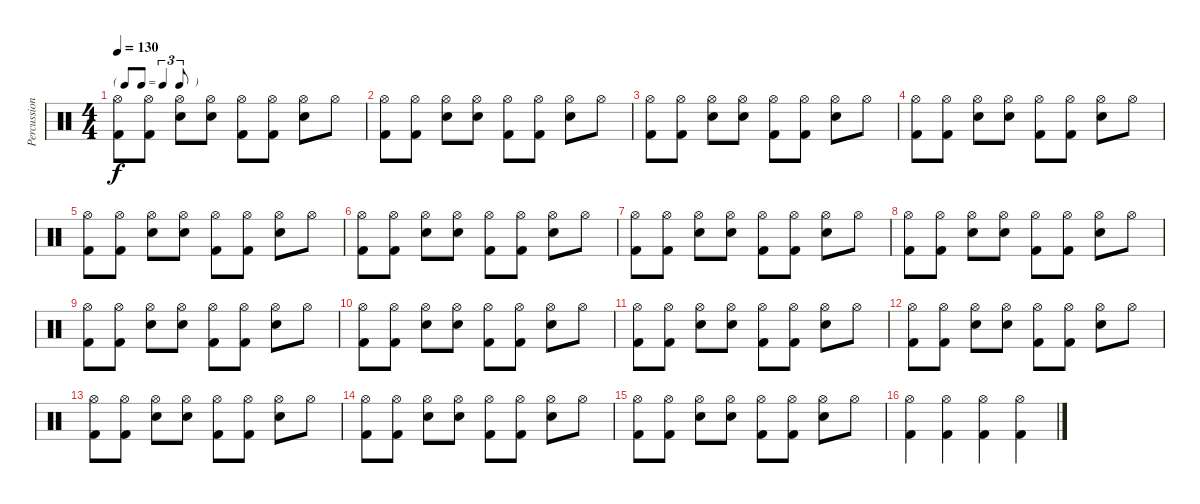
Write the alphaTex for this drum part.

\track ("Percussions" "Percussion") {instrument percussion}
\staff {score}
\articulation defaults
\ts (4 4)
\tf triplet8th
\tempo 130
\clef neutral
\ks c
("Hi-Hat (open)" "Kick (hit) 2").8{dy f} ("Hi-Hat (open)" "Kick (hit) 2").8 ("Hi-Hat (open)" "Electric Snare (hit)").8 ("Hi-Hat (open)" "Electric Snare (hit)").8 ("Hi-Hat (open)" "Kick (hit) 2").8 ("Hi-Hat (open)" "Kick (hit) 2").8 ("Hi-Hat (open)" "Electric Snare (hit)").8 "Hi-Hat (open)".8 |
("Hi-Hat (open)" "Kick (hit) 2").8 ("Hi-Hat (open)" "Kick (hit) 2").8 ("Hi-Hat (open)" "Electric Snare (hit)").8 ("Hi-Hat (open)" "Electric Snare (hit)").8 ("Hi-Hat (open)" "Kick (hit) 2").8 ("Hi-Hat (open)" "Kick (hit) 2").8 ("Hi-Hat (open)" "Electric Snare (hit)").8 "Hi-Hat (open)".8 |
("Hi-Hat (open)" "Kick (hit) 2").8 ("Hi-Hat (open)" "Kick (hit) 2").8 ("Hi-Hat (open)" "Electric Snare (hit)").8 ("Hi-Hat (open)" "Electric Snare (hit)").8 ("Hi-Hat (open)" "Kick (hit) 2").8 ("Hi-Hat (open)" "Kick (hit) 2").8 ("Hi-Hat (open)" "Electric Snare (hit)").8 "Hi-Hat (open)".8 |
("Hi-Hat (open)" "Kick (hit) 2").8 ("Hi-Hat (open)" "Kick (hit) 2").8 ("Hi-Hat (open)" "Electric Snare (hit)").8 ("Hi-Hat (open)" "Electric Snare (hit)").8 ("Hi-Hat (open)" "Kick (hit) 2").8 ("Hi-Hat (open)" "Kick (hit) 2").8 ("Hi-Hat (open)" "Electric Snare (hit)").8 "Hi-Hat (open)".8 |
("Hi-Hat (open)" "Kick (hit) 2").8 ("Hi-Hat (open)" "Kick (hit) 2").8 ("Hi-Hat (open)" "Electric Snare (hit)").8 ("Hi-Hat (open)" "Electric Snare (hit)").8 ("Hi-Hat (open)" "Kick (hit) 2").8 ("Hi-Hat (open)" "Kick (hit) 2").8 ("Hi-Hat (open)" "Electric Snare (hit)").8 "Hi-Hat (open)".8 |
("Hi-Hat (open)" "Kick (hit) 2").8 ("Hi-Hat (open)" "Kick (hit) 2").8 ("Hi-Hat (open)" "Electric Snare (hit)").8 ("Hi-Hat (open)" "Electric Snare (hit)").8 ("Hi-Hat (open)" "Kick (hit) 2").8 ("Hi-Hat (open)" "Kick (hit) 2").8 ("Hi-Hat (open)" "Electric Snare (hit)").8 "Hi-Hat (open)".8 |
("Hi-Hat (open)" "Kick (hit) 2").8 ("Hi-Hat (open)" "Kick (hit) 2").8 ("Hi-Hat (open)" "Electric Snare (hit)").8 ("Hi-Hat (open)" "Electric Snare (hit)").8 ("Hi-Hat (open)" "Kick (hit) 2").8 ("Hi-Hat (open)" "Kick (hit) 2").8 ("Hi-Hat (open)" "Electric Snare (hit)").8 "Hi-Hat (open)".8 |
("Hi-Hat (open)" "Kick (hit) 2").8 ("Hi-Hat (open)" "Kick (hit) 2").8 ("Hi-Hat (open)" "Electric Snare (hit)").8 ("Hi-Hat (open)" "Electric Snare (hit)").8 ("Hi-Hat (open)" "Kick (hit) 2").8 ("Hi-Hat (open)" "Kick (hit) 2").8 ("Hi-Hat (open)" "Electric Snare (hit)").8 "Hi-Hat (open)".8 |
("Hi-Hat (open)" "Kick (hit) 2").8 ("Hi-Hat (open)" "Kick (hit) 2").8 ("Hi-Hat (open)" "Electric Snare (hit)").8 ("Hi-Hat (open)" "Electric Snare (hit)").8 ("Hi-Hat (open)" "Kick (hit) 2").8 ("Hi-Hat (open)" "Kick (hit) 2").8 ("Hi-Hat (open)" "Electric Snare (hit)").8 "Hi-Hat (open)".8 |
("Hi-Hat (open)" "Kick (hit) 2").8 ("Hi-Hat (open)" "Kick (hit) 2").8 ("Hi-Hat (open)" "Electric Snare (hit)").8 ("Hi-Hat (open)" "Electric Snare (hit)").8 ("Hi-Hat (open)" "Kick (hit) 2").8 ("Hi-Hat (open)" "Kick (hit) 2").8 ("Hi-Hat (open)" "Electric Snare (hit)").8 "Hi-Hat (open)".8 |
("Hi-Hat (open)" "Kick (hit) 2").8 ("Hi-Hat (open)" "Kick (hit) 2").8 ("Hi-Hat (open)" "Electric Snare (hit)").8 ("Hi-Hat (open)" "Electric Snare (hit)").8 ("Hi-Hat (open)" "Kick (hit) 2").8 ("Hi-Hat (open)" "Kick (hit) 2").8 ("Hi-Hat (open)" "Electric Snare (hit)").8 "Hi-Hat (open)".8 |
("Hi-Hat (open)" "Kick (hit) 2").8 ("Hi-Hat (open)" "Kick (hit) 2").8 ("Hi-Hat (open)" "Electric Snare (hit)").8 ("Hi-Hat (open)" "Electric Snare (hit)").8 ("Hi-Hat (open)" "Kick (hit) 2").8 ("Hi-Hat (open)" "Kick (hit) 2").8 ("Hi-Hat (open)" "Electric Snare (hit)").8 "Hi-Hat (open)".8 |
("Hi-Hat (open)" "Kick (hit) 2").8 ("Hi-Hat (open)" "Kick (hit) 2").8 ("Hi-Hat (open)" "Electric Snare (hit)").8 ("Hi-Hat (open)" "Electric Snare (hit)").8 ("Hi-Hat (open)" "Kick (hit) 2").8 ("Hi-Hat (open)" "Kick (hit) 2").8 ("Hi-Hat (open)" "Electric Snare (hit)").8 "Hi-Hat (open)".8 |
("Hi-Hat (open)" "Kick (hit) 2").8 ("Hi-Hat (open)" "Kick (hit) 2").8 ("Hi-Hat (open)" "Electric Snare (hit)").8 ("Hi-Hat (open)" "Electric Snare (hit)").8 ("Hi-Hat (open)" "Kick (hit) 2").8 ("Hi-Hat (open)" "Kick (hit) 2").8 ("Hi-Hat (open)" "Electric Snare (hit)").8 "Hi-Hat (open)".8 |
("Hi-Hat (open)" "Kick (hit) 2").8 ("Hi-Hat (open)" "Kick (hit) 2").8 ("Hi-Hat (open)" "Electric Snare (hit)").8 ("Hi-Hat (open)" "Electric Snare (hit)").8 ("Hi-Hat (open)" "Kick (hit) 2").8 ("Hi-Hat (open)" "Kick (hit) 2").8 ("Hi-Hat (open)" "Electric Snare (hit)").8 "Hi-Hat (open)".8 |
("Hi-Hat (open)" "Kick (hit) 2").4 ("Hi-Hat (open)" "Kick (hit) 2").4 ("Hi-Hat (open)" "Kick (hit) 2").4 ("Hi-Hat (open)" "Kick (hit) 2").4
